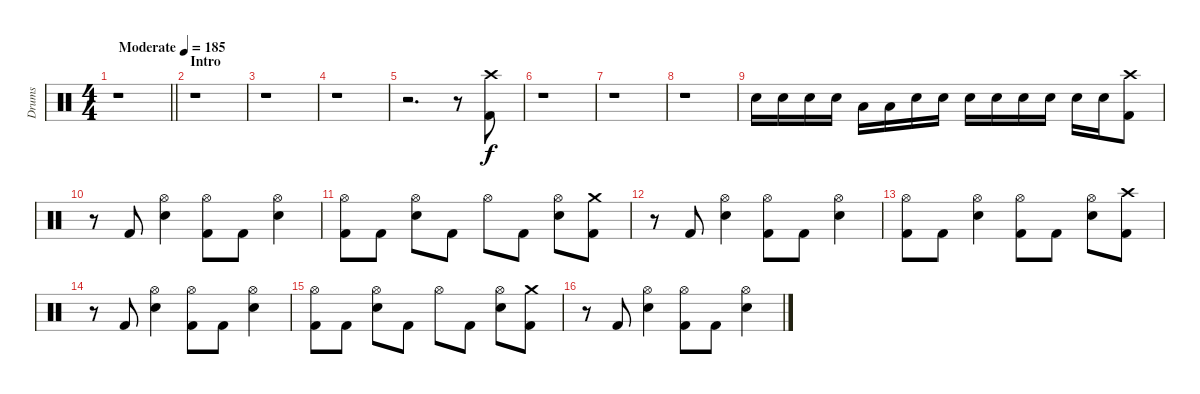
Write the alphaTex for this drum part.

\track ("Drums" "Drums") {instrument percussion}
\staff {score}
\articulation defaults
\ts (4 4)
\tempo (185 "Moderate")
\clef neutral
\barLineRight lightlight
\ks c
r.1{dy f} |
\section ("" "Intro")
r.1 |
r.1 |
r.1 |
r.2{d} r.8 ("Crash high (hit)" "Kick (hit) 2").8 |
r.1 |
r.1 |
r.1 |
"Snare (hit) 2".16 "Snare (hit) 2".16 "Snare (hit) 2".16 "Snare (hit) 2".16 "Low Tom (hit)".16 "Low Tom (hit)".16 "Snare (hit) 2".16 "Snare (hit) 2".16 "Snare (hit) 2".16 "Snare (hit) 2".16 "Snare (hit) 2".16 "Snare (hit) 2".16 "Snare (hit) 2".16 "Snare (hit) 2".16 ("Crash high (hit)" "Kick (hit) 2").8 |
r.8 "Kick (hit) 2".8 ("Hi-Hat (open)" "Snare (hit) 2").4 ("Hi-Hat (open)" "Kick (hit) 2").8 "Kick (hit) 2".8 ("Hi-Hat (open)" "Snare (hit) 2").4 |
("Hi-Hat (open)" "Kick (hit) 2").8 "Kick (hit) 2".8 ("Hi-Hat (open)" "Snare (hit) 2").8 "Kick (hit) 2".8 "Hi-Hat (open)".8 "Kick (hit) 2".8 ("Hi-Hat (open)" "Snare (hit) 2").8 ("Crash medium (hit)" "Kick (hit) 2").8 |
r.8 "Kick (hit) 2".8 ("Hi-Hat (open)" "Snare (hit) 2").4 ("Hi-Hat (open)" "Kick (hit) 2").8 "Kick (hit) 2".8 ("Hi-Hat (open)" "Snare (hit) 2").4 |
("Hi-Hat (open)" "Kick (hit) 2").8 "Kick (hit) 2".8 ("Hi-Hat (open)" "Snare (hit) 2").4 ("Hi-Hat (open)" "Kick (hit) 2").8 "Kick (hit) 2".8 ("Hi-Hat (open)" "Snare (hit) 2").8 ("Crash high (hit)" "Kick (hit) 2").8 |
r.8 "Kick (hit) 2".8 ("Hi-Hat (open)" "Snare (hit) 2").4 ("Hi-Hat (open)" "Kick (hit) 2").8 "Kick (hit) 2".8 ("Hi-Hat (open)" "Snare (hit) 2").4 |
("Hi-Hat (open)" "Kick (hit) 2").8 "Kick (hit) 2".8 ("Hi-Hat (open)" "Snare (hit) 2").8 "Kick (hit) 2".8 "Hi-Hat (open)".8 "Kick (hit) 2".8 ("Hi-Hat (open)" "Snare (hit) 2").8 ("Crash medium (hit)" "Kick (hit) 2").8 |
r.8 "Kick (hit) 2".8 ("Hi-Hat (open)" "Snare (hit) 2").4 ("Hi-Hat (open)" "Kick (hit) 2").8 "Kick (hit) 2".8 ("Hi-Hat (open)" "Snare (hit) 2").4
